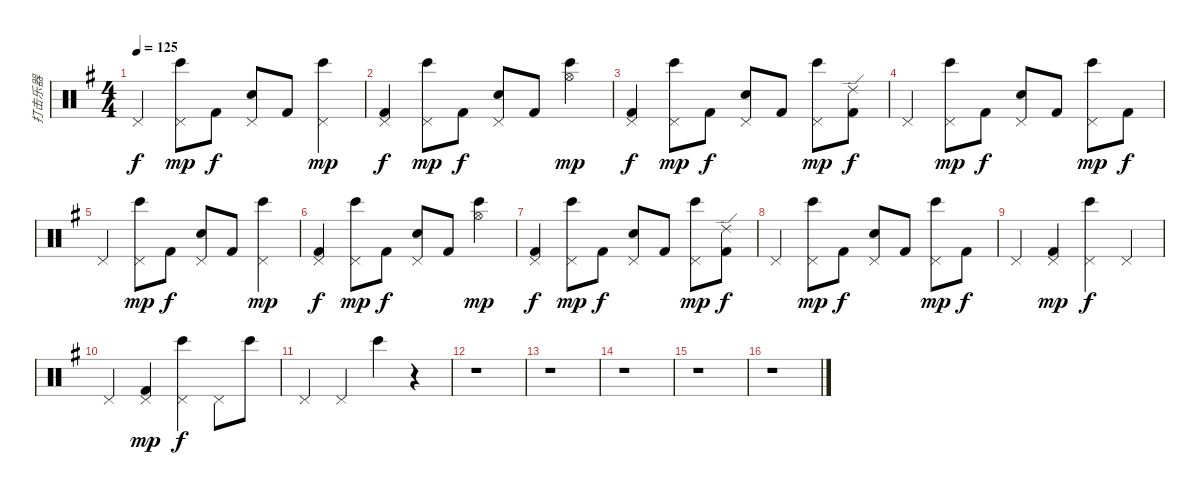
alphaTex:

\track ("打击乐器" "打击乐器") {instrument percussion}
\staff {score}
\articulation defaults
\ts (4 4)
\tempo 125
\clef neutral
\ks g "Pedal Hi-Hat (hit)".4{dy f}
("Pedal Hi-Hat (hit)" "Bongo High (hit)").8{dy mp} "Kick (hit) 2".8{dy f} ("Pedal Hi-Hat (hit)" "Snare (hit) 2").8 "Kick (hit) 2".8 ("Pedal Hi-Hat (hit)" "Bongo High (hit)").4{dy mp} |
("Pedal Hi-Hat (hit)" "Kick (hit) 2").4{dy f} ("Pedal Hi-Hat (hit)" "Bongo High (hit)").8{dy mp} "Kick (hit) 2".8{dy f} ("Pedal Hi-Hat (hit)" "Snare (hit) 2").8 "Kick (hit) 2".8 ("Hi-Hat (open)" "Bongo High (hit)").4{dy mp} |
("Pedal Hi-Hat (hit)" "Kick (hit) 2").4{dy f} ("Pedal Hi-Hat (hit)" "Bongo High (hit)").8{dy mp} "Kick (hit) 2".8{dy f} ("Pedal Hi-Hat (hit)" "Snare (hit) 2").8 "Kick (hit) 2".8 ("Pedal Hi-Hat (hit)" "Bongo High (hit)").8{dy mp} ("Ride (edge) 2" "Kick (hit) 2").8{dy f} |
"Pedal Hi-Hat (hit)".4 ("Pedal Hi-Hat (hit)" "Bongo High (hit)").8{dy mp} "Kick (hit) 2".8{dy f} ("Pedal Hi-Hat (hit)" "Snare (hit) 2").8 "Kick (hit) 2".8 ("Pedal Hi-Hat (hit)" "Bongo High (hit)").8{dy mp} "Kick (hit) 2".8{dy f} |
"Pedal Hi-Hat (hit)".4 ("Pedal Hi-Hat (hit)" "Bongo High (hit)").8{dy mp} "Kick (hit) 2".8{dy f} ("Pedal Hi-Hat (hit)" "Snare (hit) 2").8 "Kick (hit) 2".8 ("Pedal Hi-Hat (hit)" "Bongo High (hit)").4{dy mp} |
("Pedal Hi-Hat (hit)" "Kick (hit) 2").4{dy f} ("Pedal Hi-Hat (hit)" "Bongo High (hit)").8{dy mp} "Kick (hit) 2".8{dy f} ("Pedal Hi-Hat (hit)" "Snare (hit) 2").8 "Kick (hit) 2".8 ("Hi-Hat (open)" "Bongo High (hit)").4{dy mp} |
("Pedal Hi-Hat (hit)" "Kick (hit) 2").4{dy f} ("Pedal Hi-Hat (hit)" "Bongo High (hit)").8{dy mp} "Kick (hit) 2".8{dy f} ("Pedal Hi-Hat (hit)" "Snare (hit) 2").8 "Kick (hit) 2".8 ("Pedal Hi-Hat (hit)" "Bongo High (hit)").8{dy mp} ("Ride (edge) 2" "Kick (hit) 2").8{dy f} |
"Pedal Hi-Hat (hit)".4 ("Pedal Hi-Hat (hit)" "Bongo High (hit)").8{dy mp} "Kick (hit) 2".8{dy f} ("Pedal Hi-Hat (hit)" "Snare (hit) 2").8 "Kick (hit) 2".8 ("Pedal Hi-Hat (hit)" "Bongo High (hit)").8{dy mp} "Kick (hit) 2".8{dy f} |
"Pedal Hi-Hat (hit)".4 ("Pedal Hi-Hat (hit)" "Kick (hit) 2").4{dy mp} ("Pedal Hi-Hat (hit)" "Bongo High (hit)").4{dy f} "Pedal Hi-Hat (hit)".4 |
"Pedal Hi-Hat (hit)".4 ("Pedal Hi-Hat (hit)" "Kick (hit) 2").4{dy mp} ("Pedal Hi-Hat (hit)" "Bongo High (hit)").4{dy f} "Pedal Hi-Hat (hit)".8 "Bongo High (hit)".8 |
"Pedal Hi-Hat (hit)".4 "Pedal Hi-Hat (hit)".4 "Bongo High (hit)".4 r.4 |
r.1 |
r.1 |
r.1 |
r.1 |
r.1
